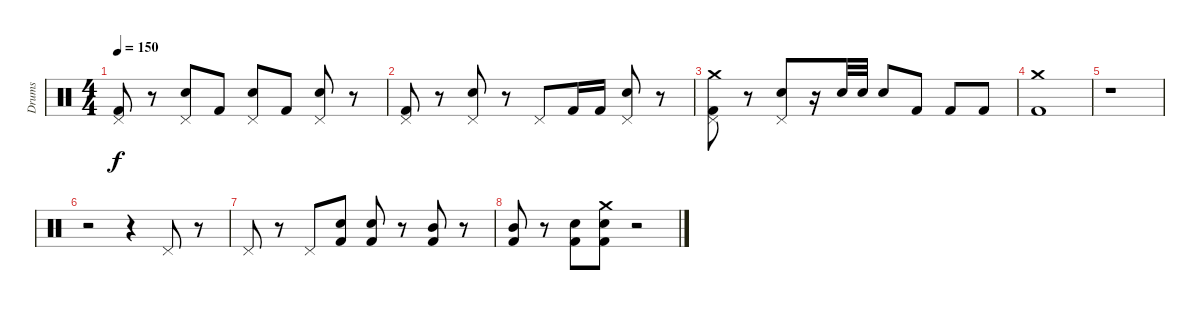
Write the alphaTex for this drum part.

\track ("Drums" "Drums") {instrument percussion}
\staff {score}
\articulation defaults
\ts (4 4)
\tempo 150
\clef neutral
\ks c
("Kick (hit) 2" "Pedal Hi-Hat (hit)").8{dy f} r.8 ("Pedal Hi-Hat (hit)" "Electric Snare (hit)").8 "Kick (hit) 2".8 ("Pedal Hi-Hat (hit)" "Electric Snare (hit)").8 "Kick (hit) 2".8 ("Pedal Hi-Hat (hit)" "Electric Snare (hit)").8 r.8 |
("Kick (hit) 2" "Pedal Hi-Hat (hit)").8 r.8 ("Pedal Hi-Hat (hit)" "Electric Snare (hit)").8 r.8 "Pedal Hi-Hat (hit)".8 "Kick (hit) 2".16 "Kick (hit) 2".16 ("Pedal Hi-Hat (hit)" "Electric Snare (hit)").8 r.8 |
("Kick (hit) 2" "Pedal Hi-Hat (hit)" "Crash medium (hit)").8 r.8 ("Pedal Hi-Hat (hit)" "Electric Snare (hit)").8 r.16 "Electric Snare (hit)".32 "Electric Snare (hit)".32 "Electric Snare (hit)".8 "Kick (hit) 2".8 "Kick (hit) 2".8 "Kick (hit) 2".8 |
("Kick (hit) 2" "Crash medium (hit)").1 |
r.1 |
r.2 r.4 "Pedal Hi-Hat (hit)".8 r.8 |
"Pedal Hi-Hat (hit)".8 r.8 "Pedal Hi-Hat (hit)".8 ("Kick (hit) 2" "Electric Snare (hit)").8 ("Kick (hit) 2" "Electric Snare (hit)").8 r.8 ("Kick (hit) 2" "Mid Tom (hit)").8 r.8 |
("Kick (hit) 2" "Mid Tom (hit)").8 r.8 ("Kick (hit) 2" "Electric Snare (hit)").8 ("Kick (hit) 2" "Crash medium (hit)" "Electric Snare (hit)").8 r.2
